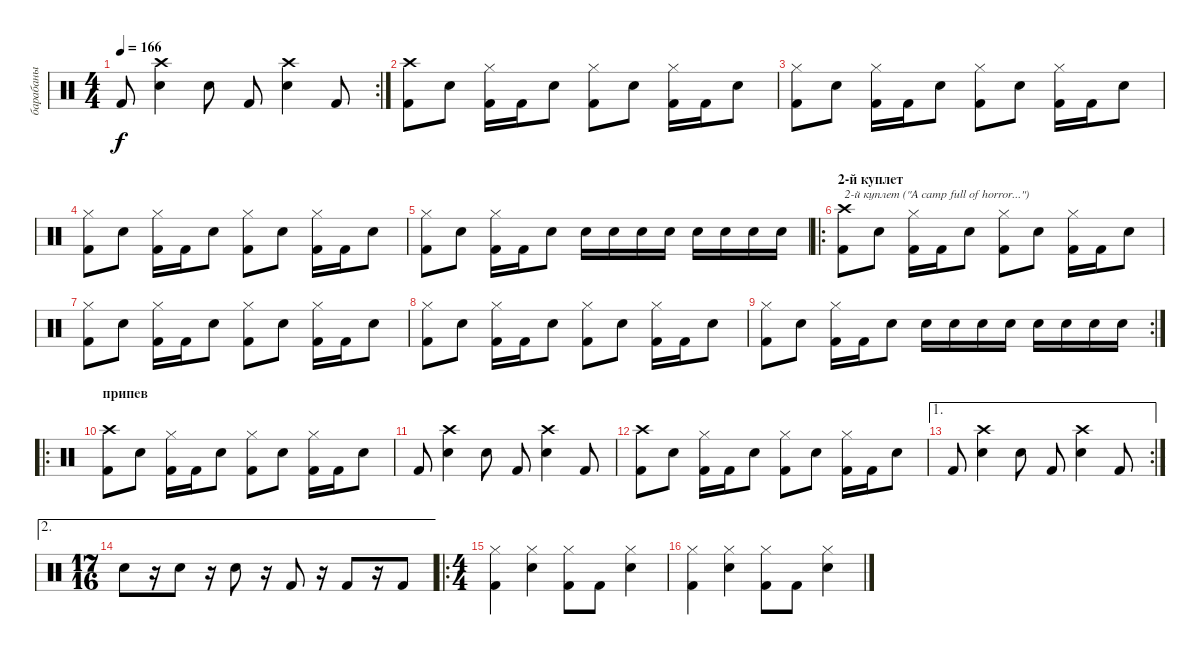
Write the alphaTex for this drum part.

\track ("барабаны" "барабаны") {instrument percussion}
\staff {score}
\articulation defaults
\rc 2
\ts (4 4)
\tempo 166
\clef neutral
\ks c "Kick (hit) 2".8{dy f}
("Crash high (hit)" "Snare (hit) 2").4 "Snare (hit) 2".8 "Kick (hit) 2".8 ("Crash high (hit)" "Snare (hit) 2").4 "Kick (hit) 2".8 |
("Crash high (hit)" "Kick (hit) 2").8 "Snare (hit) 2".8 ("Hi-Hat (closed)" "Kick (hit) 2").16 "Kick (hit) 2".16 "Snare (hit) 2".8 ("Hi-Hat (closed)" "Kick (hit) 2").8 "Snare (hit) 2".8 ("Hi-Hat (closed)" "Kick (hit) 2").16 "Kick (hit) 2".16 "Snare (hit) 2".8 |
("Hi-Hat (closed)" "Kick (hit) 2").8 "Snare (hit) 2".8 ("Hi-Hat (closed)" "Kick (hit) 2").16 "Kick (hit) 2".16 "Snare (hit) 2".8 ("Hi-Hat (closed)" "Kick (hit) 2").8 "Snare (hit) 2".8 ("Hi-Hat (closed)" "Kick (hit) 2").16 "Kick (hit) 2".16 "Snare (hit) 2".8 |
("Hi-Hat (closed)" "Kick (hit) 2").8 "Snare (hit) 2".8 ("Hi-Hat (closed)" "Kick (hit) 2").16 "Kick (hit) 2".16 "Snare (hit) 2".8 ("Hi-Hat (closed)" "Kick (hit) 2").8 "Snare (hit) 2".8 ("Hi-Hat (closed)" "Kick (hit) 2").16 "Kick (hit) 2".16 "Snare (hit) 2".8 |
("Hi-Hat (closed)" "Kick (hit) 2").8 "Snare (hit) 2".8 ("Hi-Hat (closed)" "Kick (hit) 2").16 "Kick (hit) 2".16 "Snare (hit) 2".8 "Snare (hit) 2".16 "Snare (hit) 2".16 "Snare (hit) 2".16 "Snare (hit) 2".16 "Snare (hit) 2".16 "Snare (hit) 2".16 "Snare (hit) 2".16 "Snare (hit) 2".16 |
\ro
\section ("" "2-й куплет")
("Crash high (hit)" "Kick (hit) 2").8{txt "2-й куплет (\"A camp full of horror...\")"} "Snare (hit) 2".8 ("Hi-Hat (closed)" "Kick (hit) 2").16 "Kick (hit) 2".16 "Snare (hit) 2".8 ("Hi-Hat (closed)" "Kick (hit) 2").8 "Snare (hit) 2".8 ("Hi-Hat (closed)" "Kick (hit) 2").16 "Kick (hit) 2".16 "Snare (hit) 2".8 |
("Hi-Hat (closed)" "Kick (hit) 2").8 "Snare (hit) 2".8 ("Hi-Hat (closed)" "Kick (hit) 2").16 "Kick (hit) 2".16 "Snare (hit) 2".8 ("Hi-Hat (closed)" "Kick (hit) 2").8 "Snare (hit) 2".8 ("Hi-Hat (closed)" "Kick (hit) 2").16 "Kick (hit) 2".16 "Snare (hit) 2".8 |
("Hi-Hat (closed)" "Kick (hit) 2").8 "Snare (hit) 2".8 ("Hi-Hat (closed)" "Kick (hit) 2").16 "Kick (hit) 2".16 "Snare (hit) 2".8 ("Hi-Hat (closed)" "Kick (hit) 2").8 "Snare (hit) 2".8 ("Hi-Hat (closed)" "Kick (hit) 2").16 "Kick (hit) 2".16 "Snare (hit) 2".8 |
\rc 2
("Hi-Hat (closed)" "Kick (hit) 2").8 "Snare (hit) 2".8 ("Hi-Hat (closed)" "Kick (hit) 2").16 "Kick (hit) 2".16 "Snare (hit) 2".8 "Snare (hit) 2".16 "Snare (hit) 2".16 "Snare (hit) 2".16 "Snare (hit) 2".16 "Snare (hit) 2".16 "Snare (hit) 2".16 "Snare (hit) 2".16 "Snare (hit) 2".16 |
\ro
\section ("" "припев")
("Crash high (hit)" "Kick (hit) 2").8 "Snare (hit) 2".8 ("Hi-Hat (closed)" "Kick (hit) 2").16 "Kick (hit) 2".16 "Snare (hit) 2".8 ("Hi-Hat (closed)" "Kick (hit) 2").8 "Snare (hit) 2".8 ("Hi-Hat (closed)" "Kick (hit) 2").16 "Kick (hit) 2".16 "Snare (hit) 2".8 |
"Kick (hit) 2".8 ("Crash high (hit)" "Snare (hit) 2").4 "Snare (hit) 2".8 "Kick (hit) 2".8 ("Crash high (hit)" "Snare (hit) 2").4 "Kick (hit) 2".8 |
("Crash high (hit)" "Kick (hit) 2").8 "Snare (hit) 2".8 ("Hi-Hat (closed)" "Kick (hit) 2").16 "Kick (hit) 2".16 "Snare (hit) 2".8 ("Hi-Hat (closed)" "Kick (hit) 2").8 "Snare (hit) 2".8 ("Hi-Hat (closed)" "Kick (hit) 2").16 "Kick (hit) 2".16 "Snare (hit) 2".8 |
\ae 1
\rc 2 "Kick (hit) 2".8
("Crash high (hit)" "Snare (hit) 2").4 "Snare (hit) 2".8 "Kick (hit) 2".8 ("Crash high (hit)" "Snare (hit) 2").4 "Kick (hit) 2".8 |
\ae 2
\ts (17 16)
"Snare (hit) 2".8 r.16 "Snare (hit) 2".8 r.16 "Snare (hit) 2".8 r.16 "Kick (hit) 2".8 r.16 "Kick (hit) 2".8 r.16 "Kick (hit) 2".8 |
\ro
\ts (4 4)
("Hi-Hat (closed)" "Kick (hit) 2").4 ("Hi-Hat (closed)" "Snare (hit) 2").4 ("Hi-Hat (closed)" "Kick (hit) 2").8 "Kick (hit) 2".8 ("Hi-Hat (closed)" "Snare (hit) 2").4 |
("Hi-Hat (closed)" "Kick (hit) 2").4 ("Hi-Hat (closed)" "Snare (hit) 2").4 ("Hi-Hat (closed)" "Kick (hit) 2").8 "Kick (hit) 2".8 ("Hi-Hat (closed)" "Snare (hit) 2").4
